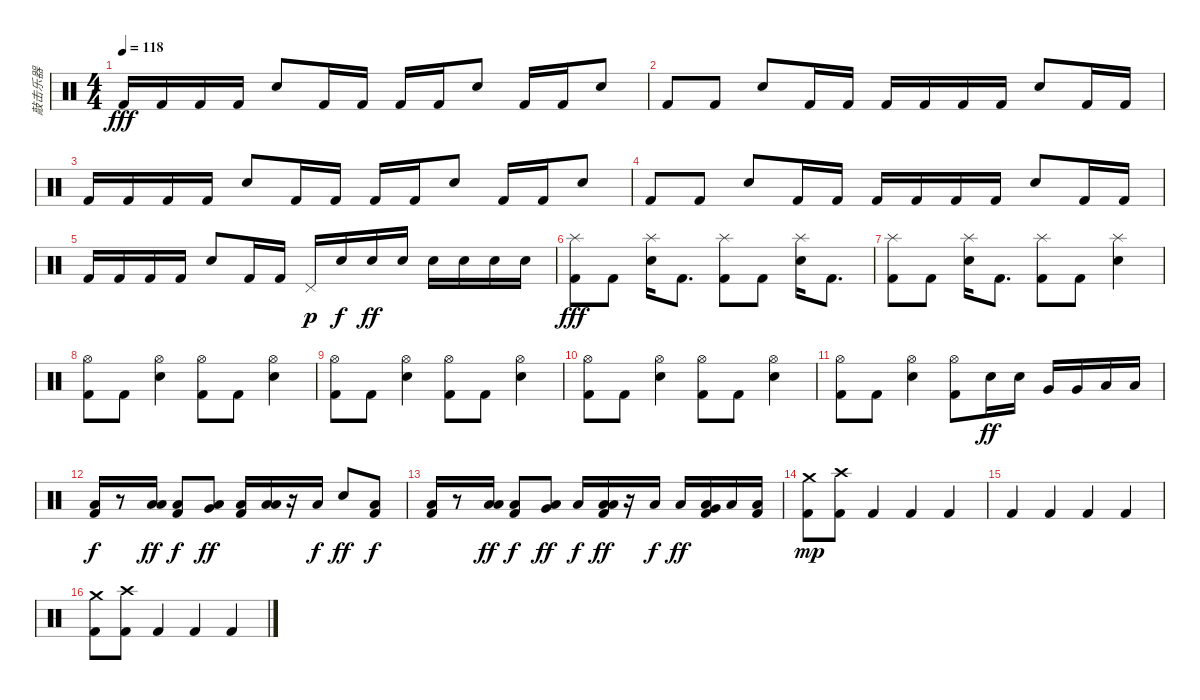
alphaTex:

\track ("敲击乐器" "敲击乐器") {instrument percussion}
\staff {score}
\articulation defaults
\ts (4 4)
\tempo 118
\clef neutral
\ks c "Kick (hit) 2".16{dy fff} "Kick (hit) 2".16 "Kick (hit) 2".16 "Kick (hit) 2".16 "Snare (hit) 2".8 "Kick (hit) 2".16 "Kick (hit) 2".16 "Kick (hit) 2".16 "Kick (hit) 2".16 "Snare (hit) 2".8 "Kick (hit) 2".16 "Kick (hit) 2".16 "Snare (hit) 2".8
|
"Kick (hit) 2".8 "Kick (hit) 2".8 "Snare (hit) 2".8 "Kick (hit) 2".16 "Kick (hit) 2".16 "Kick (hit) 2".16 "Kick (hit) 2".16 "Kick (hit) 2".16 "Kick (hit) 2".16 "Snare (hit) 2".8 "Kick (hit) 2".16 "Kick (hit) 2".16 |
"Kick (hit) 2".16 "Kick (hit) 2".16 "Kick (hit) 2".16 "Kick (hit) 2".16 "Snare (hit) 2".8 "Kick (hit) 2".16 "Kick (hit) 2".16 "Kick (hit) 2".16 "Kick (hit) 2".16 "Snare (hit) 2".8 "Kick (hit) 2".16 "Kick (hit) 2".16 "Snare (hit) 2".8 |
"Kick (hit) 2".8 "Kick (hit) 2".8 "Snare (hit) 2".8 "Kick (hit) 2".16 "Kick (hit) 2".16 "Kick (hit) 2".16 "Kick (hit) 2".16 "Kick (hit) 2".16 "Kick (hit) 2".16 "Snare (hit) 2".8 "Kick (hit) 2".16 "Kick (hit) 2".16 |
"Kick (hit) 2".16 "Kick (hit) 2".16 "Kick (hit) 2".16 "Kick (hit) 2".16 "Snare (hit) 2".8 "Kick (hit) 2".16 "Kick (hit) 2".16 "Pedal Hi-Hat (hit)".16{dy p} "Snare (hit) 2".16{dy f} "Snare (hit) 2".16{dy ff} "Snare (hit) 2".16 "Snare (hit) 2".16 "Snare (hit) 2".16 "Snare (hit) 2".16 "Snare (hit) 2".16 |
("Splash (hit)" "Kick (hit) 2").8{dy fff} "Kick (hit) 2".8 ("Splash (hit)" "Snare (hit) 2").16 "Kick (hit) 2".8{d} ("Splash (hit)" "Kick (hit) 2").8 "Kick (hit) 2".8 ("Splash (hit)" "Snare (hit) 2").16 "Kick (hit) 2".8{d} |
("Splash (hit)" "Kick (hit) 2").8 "Kick (hit) 2".8 ("Splash (hit)" "Snare (hit) 2").16 "Kick (hit) 2".8{d} ("Splash (hit)" "Kick (hit) 2").8 "Kick (hit) 2".8 ("Splash (hit)" "Snare (hit) 2").4 |
("Hi-Hat (open)" "Kick (hit) 2").8 "Kick (hit) 2".8 ("Hi-Hat (open)" "Snare (hit) 2").4 ("Hi-Hat (open)" "Kick (hit) 2").8 "Kick (hit) 2".8 ("Hi-Hat (open)" "Snare (hit) 2").4 |
("Hi-Hat (open)" "Kick (hit) 2").8 "Kick (hit) 2".8 ("Hi-Hat (open)" "Snare (hit) 2").4 ("Hi-Hat (open)" "Kick (hit) 2").8 "Kick (hit) 2".8 ("Hi-Hat (open)" "Snare (hit) 2").4 |
("Hi-Hat (open)" "Kick (hit) 2").8 "Kick (hit) 2".8 ("Hi-Hat (open)" "Snare (hit) 2").4 ("Hi-Hat (open)" "Kick (hit) 2").8 "Kick (hit) 2".8 ("Hi-Hat (open)" "Snare (hit) 2").4 |
("Hi-Hat (open)" "Kick (hit) 2").8 "Kick (hit) 2".8 ("Hi-Hat (open)" "Snare (hit) 2").4 ("Hi-Hat (open)" "Kick (hit) 2").8 "Snare (hit) 2".16{dy ff} "Snare (hit) 2".16 "Very Low Tom (hit)".16 "Very Low Tom (hit)".16 "Low Floor Tom (hit)".16 "Low Floor Tom (hit)".16 |
("Low Floor Tom (hit)" "Kick (hit) 2").16{dy f} r.8 ("Low Tom (hit)" "Low Floor Tom (hit)").16{dy ff} ("Low Floor Tom (hit)" "Kick (hit) 2").8{dy f} ("Very Low Tom (hit)" "Low Floor Tom (hit)").8{dy ff} ("Low Floor Tom (hit)" "Kick (hit) 2").16 ("Low Tom (hit)" "Low Floor Tom (hit)").16 r.16 "Low Floor Tom (hit)".16{dy f} "Snare (hit) 2".8{dy ff} ("Low Floor Tom (hit)" "Kick (hit) 2").8{dy f} |
("Low Floor Tom (hit)" "Kick (hit) 2").16 r.8 ("Low Tom (hit)" "Low Floor Tom (hit)").16{dy ff} ("Low Floor Tom (hit)" "Kick (hit) 2").8{dy f} ("Very Low Tom (hit)" "Low Floor Tom (hit)").8{dy ff} "Low Floor Tom (hit)".16{dy f} ("Low Tom (hit)" "Low Floor Tom (hit)" "Kick (hit) 2").16{dy ff} r.16 "Low Floor Tom (hit)".16{dy f} "Low Tom (hit)".16{dy ff} ("Very Low Tom (hit)" "Low Floor Tom (hit)" "Kick (hit) 2").16 "Low Floor Tom (hit)".16 ("Low Floor Tom (hit)" "Kick (hit) 2").16 |
("Crash medium (hit)" "Kick (hit) 2").8{dy mp} ("Crash high (hit)" "Kick (hit) 2").8 "Kick (hit) 2".4 "Kick (hit) 2".4 "Kick (hit) 2".4 |
"Kick (hit) 2".4 "Kick (hit) 2".4 "Kick (hit) 2".4 "Kick (hit) 2".4 |
("Crash medium (hit)" "Kick (hit) 2").8 ("Crash high (hit)" "Kick (hit) 2").8 "Kick (hit) 2".4 "Kick (hit) 2".4 "Kick (hit) 2".4
